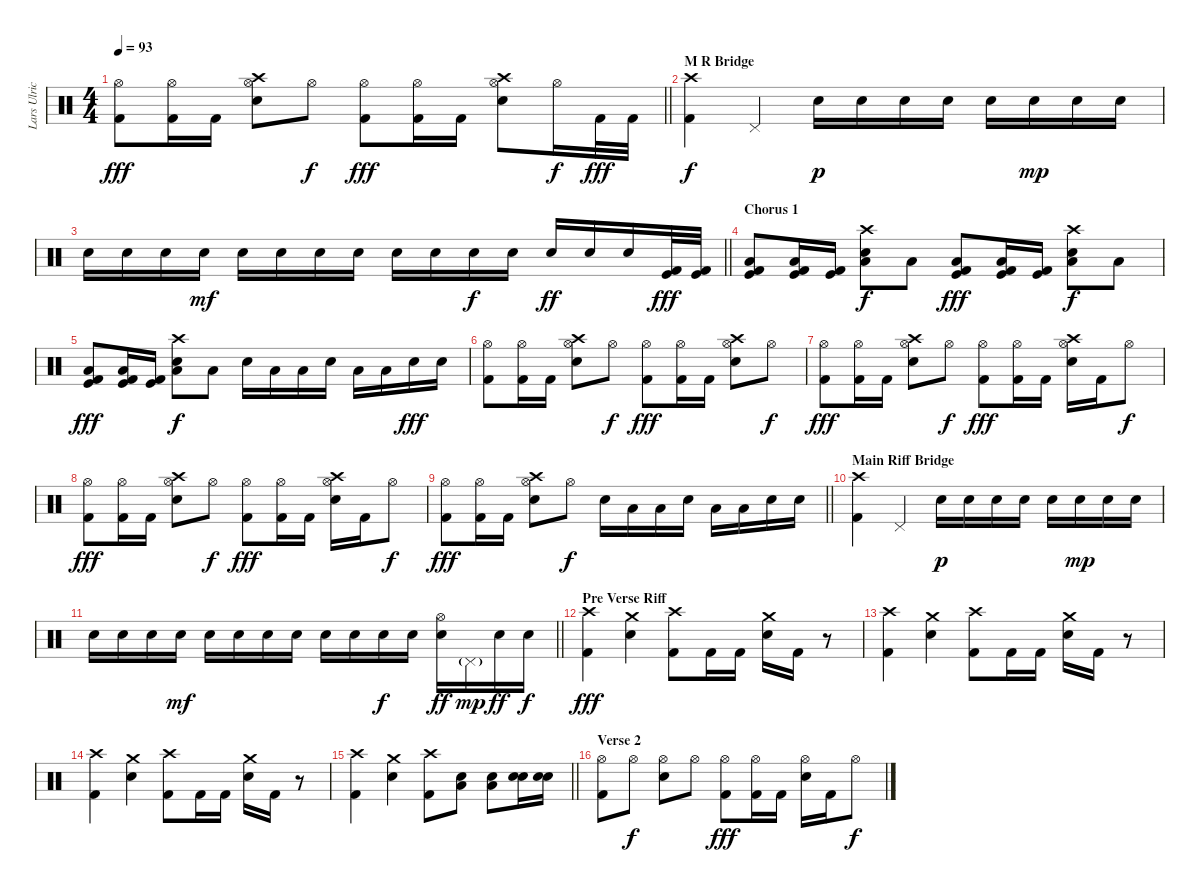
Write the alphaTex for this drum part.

\track ("Lars Ulrich" "Lars Ulric") {instrument percussion}
\staff {score}
\articulation defaults
\ts (4 4)
\tempo 93
\clef neutral
\barLineRight lightlight
\ks c
("Hi-Hat (open)" "Kick (hit) 2").8{dy fff} ("Hi-Hat (open)" "Kick (hit) 2").16 "Kick (hit) 2".16 ("Crash high (hit)" "Hi-Hat (open)" "Snare (hit) 2").8 "Hi-Hat (open)".8{dy f} ("Hi-Hat (open)" "Kick (hit) 2").8{dy fff} ("Hi-Hat (open)" "Kick (hit) 2").16 "Kick (hit) 2".16 ("Crash high (hit)" "Hi-Hat (open)" "Snare (hit) 2").8 "Hi-Hat (open)".16{dy f} "Kick (hit) 2".32{dy fff} "Kick (hit) 2".32 |
\section ("" "M R Bridge")
("Crash high (hit)" "Kick (hit) 2").4{dy f} "Pedal Hi-Hat (hit)".4 "Snare (hit) 2".16{dy p} "Snare (hit) 2".16 "Snare (hit) 2".16 "Snare (hit) 2".16 "Snare (hit) 2".16 "Snare (hit) 2".16{dy mp} "Snare (hit) 2".16 "Snare (hit) 2".16 |
\barLineRight lightlight "Snare (hit) 2".16 "Snare (hit) 2".16 "Snare (hit) 2".16 "Snare (hit) 2".16{dy mf} "Snare (hit) 2".16 "Snare (hit) 2".16 "Snare (hit) 2".16 "Snare (hit) 2".16 "Snare (hit) 2".16 "Snare (hit) 2".16 "Snare (hit) 2".16{dy f} "Snare (hit) 2".16 "Snare (hit) 2".16{dy ff} "Snare (hit) 2".16 "Snare (hit) 2".16
("Kick (hit)" "Kick (hit) 2").32{dy fff} ("Kick (hit)" "Kick (hit) 2").32 |
\section ("" "Chorus 1")
("Low Floor Tom (hit)" "Kick (hit)" "Kick (hit) 2").8 ("Low Floor Tom (hit)" "Kick (hit)" "Kick (hit) 2").16 ("Kick (hit)" "Kick (hit) 2").16 ("Crash high (hit)" "Snare (hit) 2" "Low Floor Tom (hit)").8{dy f} "Low Floor Tom (hit)".8 ("Low Floor Tom (hit)" "Kick (hit)" "Kick (hit) 2").8{dy fff} ("Low Floor Tom (hit)" "Kick (hit)" "Kick (hit) 2").16 ("Kick (hit)" "Kick (hit) 2").16 ("Crash high (hit)" "Snare (hit) 2" "Low Floor Tom (hit)").8{dy f} "Low Floor Tom (hit)".8 |
("Low Floor Tom (hit)" "Kick (hit)" "Kick (hit) 2").8{dy fff} ("Low Floor Tom (hit)" "Kick (hit)" "Kick (hit) 2").16 ("Kick (hit)" "Kick (hit) 2").16 ("Crash high (hit)" "Snare (hit) 2" "Low Floor Tom (hit)").8{dy f} "Low Floor Tom (hit)".8 "Snare (hit) 2".16 "Low Tom (hit)".16 "Low Floor Tom (hit)".16 "Snare (hit) 2".16 "Low Tom (hit)".16 "Low Floor Tom (hit)".16 "Snare (hit) 2".16{dy fff} "Snare (hit) 2".16 |
("Hi-Hat (open)" "Kick (hit) 2").8 ("Hi-Hat (open)" "Kick (hit) 2").16 "Kick (hit) 2".16 ("Crash high (hit)" "Hi-Hat (open)" "Snare (hit) 2").8 "Hi-Hat (open)".8{dy f} ("Hi-Hat (open)" "Kick (hit) 2").8{dy fff} ("Hi-Hat (open)" "Kick (hit) 2").16 "Kick (hit) 2".16 ("Crash high (hit)" "Hi-Hat (open)" "Snare (hit) 2").8 "Hi-Hat (open)".8{dy f} |
("Hi-Hat (open)" "Kick (hit) 2").8{dy fff} ("Hi-Hat (open)" "Kick (hit) 2").16 "Kick (hit) 2".16 ("Crash high (hit)" "Hi-Hat (open)" "Snare (hit) 2").8 "Hi-Hat (open)".8{dy f} ("Hi-Hat (open)" "Kick (hit) 2").8{dy fff} ("Hi-Hat (open)" "Kick (hit) 2").16 "Kick (hit) 2".16 ("Crash high (hit)" "Hi-Hat (open)" "Snare (hit) 2").16 "Kick (hit) 2".16 "Hi-Hat (open)".8{dy f} |
("Hi-Hat (open)" "Kick (hit) 2").8{dy fff} ("Hi-Hat (open)" "Kick (hit) 2").16 "Kick (hit) 2".16 ("Crash high (hit)" "Hi-Hat (open)" "Snare (hit) 2").8 "Hi-Hat (open)".8{dy f} ("Hi-Hat (open)" "Kick (hit) 2").8{dy fff} ("Hi-Hat (open)" "Kick (hit) 2").16 "Kick (hit) 2".16 ("Crash high (hit)" "Hi-Hat (open)" "Snare (hit) 2").16 "Kick (hit) 2".16 "Hi-Hat (open)".8{dy f} |
\barLineRight lightlight
("Hi-Hat (open)" "Kick (hit) 2").8{dy fff} ("Hi-Hat (open)" "Kick (hit) 2").16 "Kick (hit) 2".16 ("Crash high (hit)" "Hi-Hat (open)" "Snare (hit) 2").8 "Hi-Hat (open)".8{dy f} "Snare (hit) 2".16 "Low Tom (hit)".16 "Low Floor Tom (hit)".16 "Snare (hit) 2".16 "Low Tom (hit)".16 "Low Floor Tom (hit)".16 "Snare (hit) 2".16 "Snare (hit) 2".16 |
\section ("" "Main Riff Bridge")
("Crash high (hit)" "Kick (hit) 2").4 "Pedal Hi-Hat (hit)".4 "Snare (hit) 2".16{dy p} "Snare (hit) 2".16 "Snare (hit) 2".16 "Snare (hit) 2".16 "Snare (hit) 2".16 "Snare (hit) 2".16{dy mp} "Snare (hit) 2".16 "Snare (hit) 2".16 |
\barLineRight lightlight "Snare (hit) 2".16 "Snare (hit) 2".16 "Snare (hit) 2".16 "Snare (hit) 2".16{dy mf} "Snare (hit) 2".16 "Snare (hit) 2".16 "Snare (hit) 2".16 "Snare (hit) 2".16 "Snare (hit) 2".16 "Snare (hit) 2".16 "Snare (hit) 2".16{dy f} "Snare (hit) 2".16
("Hi-Hat (open)" "Snare (hit) 2").16{dy ff} "Pedal Hi-Hat (hit)"{g}.16{dy mp} "Snare (hit) 2".16{dy ff} "Snare (hit) 2".16{dy f} |
\section ("" "Pre Verse Riff")
("Crash high (hit)" "Kick (hit) 2").4{dy fff} ("Crash medium (hit)" "Snare (hit) 2").4 ("Crash high (hit)" "Kick (hit) 2").8 "Kick (hit) 2".16 "Kick (hit) 2".16 ("Crash medium (hit)" "Snare (hit) 2").16 "Kick (hit) 2".16 r.8 |
("Crash high (hit)" "Kick (hit) 2").4 ("Crash medium (hit)" "Snare (hit) 2").4 ("Crash high (hit)" "Kick (hit) 2").8 "Kick (hit) 2".16 "Kick (hit) 2".16 ("Crash medium (hit)" "Snare (hit) 2").16 "Kick (hit) 2".16 r.8 |
("Crash high (hit)" "Kick (hit) 2").4 ("Crash medium (hit)" "Snare (hit) 2").4 ("Crash high (hit)" "Kick (hit) 2").8 "Kick (hit) 2".16 "Kick (hit) 2".16 ("Crash medium (hit)" "Snare (hit) 2").16 "Kick (hit) 2".16 r.8 |
\barLineRight lightlight
("Crash high (hit)" "Kick (hit) 2").4 ("Crash medium (hit)" "Snare (hit) 2").4 ("Crash high (hit)" "Kick (hit) 2").8 ("Low Floor Tom (hit)" "Electric Snare (hit)").8 ("Low Floor Tom (hit)" "Electric Snare (hit)").8 ("Electric Snare (hit)" "Electric Snare (hit)").16 ("Electric Snare (hit)" "Electric Snare (hit)").16 |
\section ("" "Verse 2")
("Hi-Hat (open)" "Kick (hit) 2").8 "Hi-Hat (open)".8{dy f} ("Hi-Hat (open)" "Snare (hit) 2").8 "Hi-Hat (open)".8 ("Hi-Hat (open)" "Kick (hit) 2").8{dy fff} ("Hi-Hat (open)" "Kick (hit) 2").16 "Kick (hit) 2".16 ("Hi-Hat (open)" "Snare (hit) 2").16 "Kick (hit) 2".16 "Hi-Hat (open)".8{dy f}
